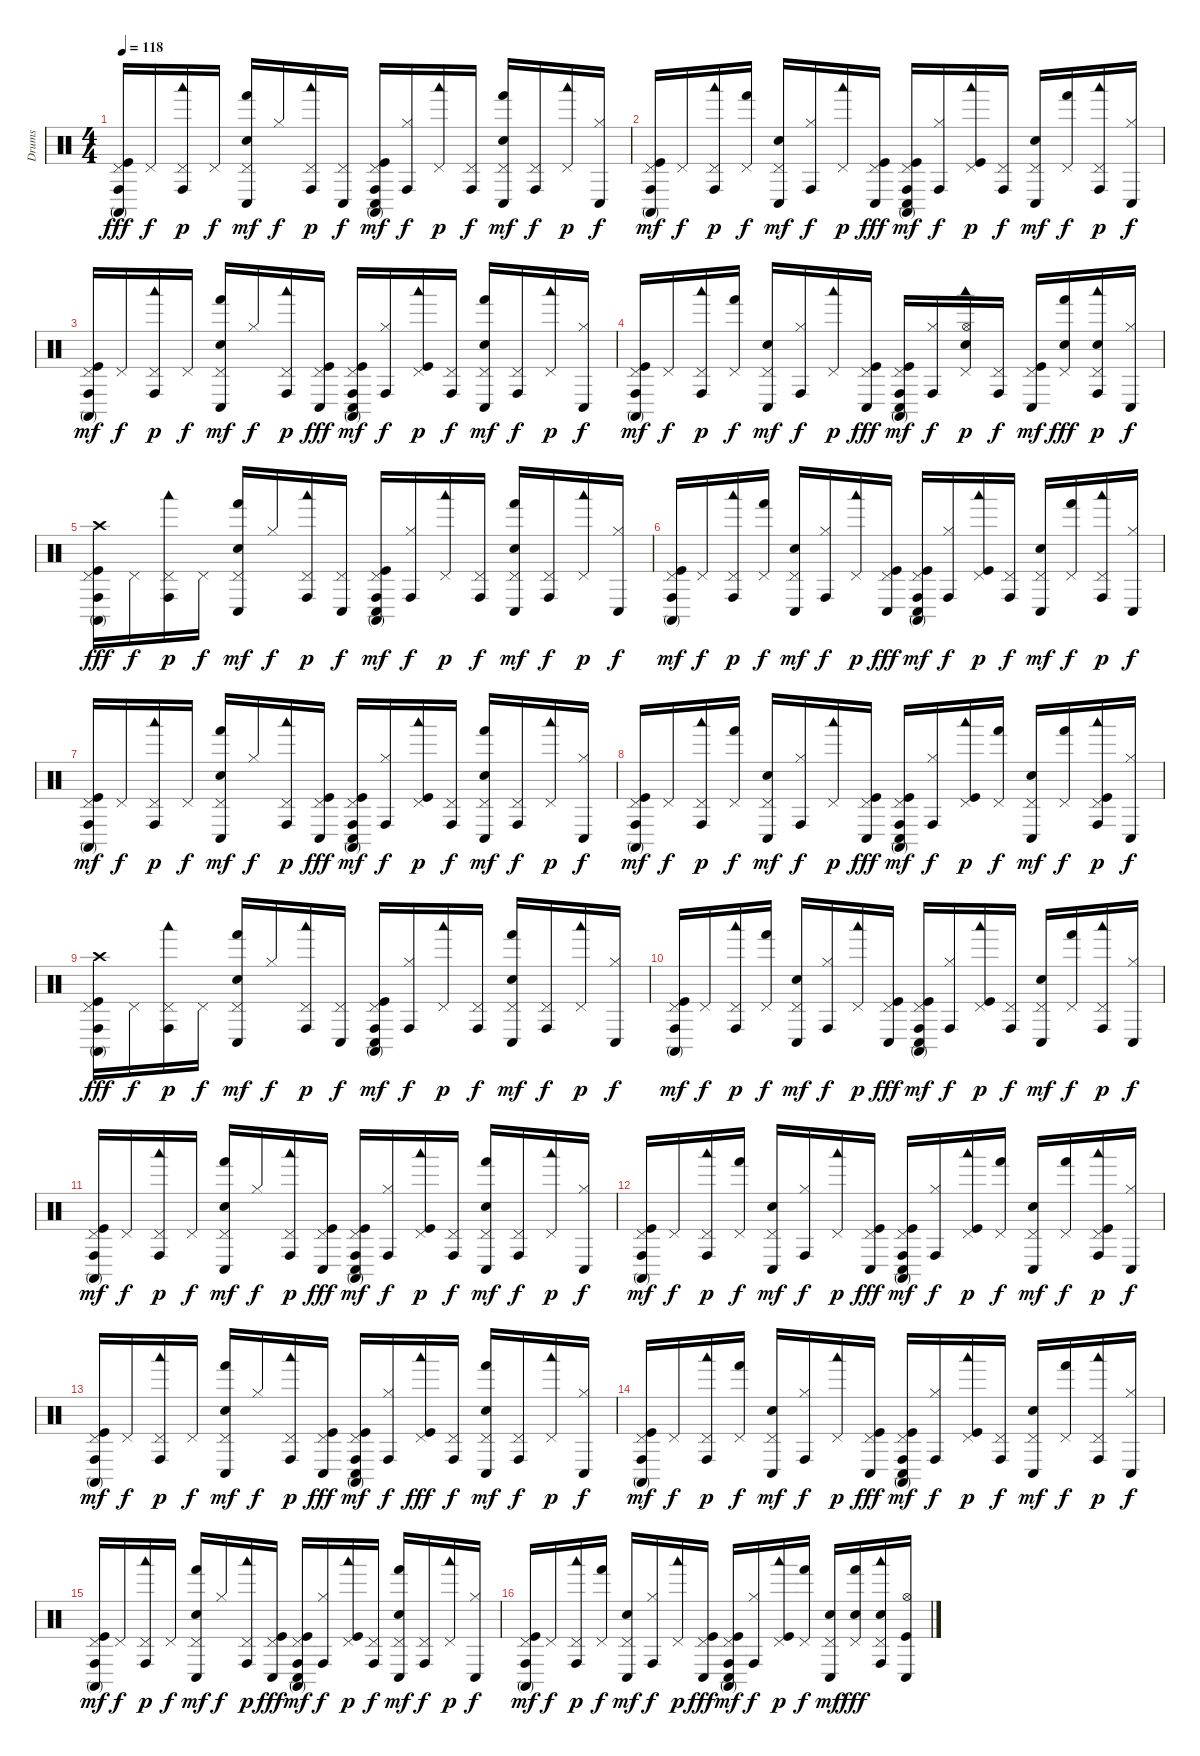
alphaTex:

\track ("Drums" "Drums") {instrument percussion}
\staff {score}
\articulation defaults
\ts (4 4)
\tempo 118
\clef neutral
\ks c
("Pedal Hi-Hat (hit)" "Kick (hit)" "Conga high (hit)" "Conga high (mute)").16{dy fff} "Pedal Hi-Hat (hit)".16{dy f} ("Pedal Hi-Hat (hit)" "Woodblock low (hit)" "Conga high (hit)").16{dy p} "Pedal Hi-Hat (hit)".16{dy f} ("Electric Snare (hit)" "Pedal Hi-Hat (hit)" "Hand (hit)" "Conga low (hit)").16{dy mf} "Hi-Hat (closed)".16{dy f} ("Pedal Hi-Hat (hit)" "Conga high (hit)" "Woodblock low (hit)").16{dy p} ("Pedal Hi-Hat (hit)" "Conga low (hit)").16{dy f} ("Kick (hit)" "Pedal Hi-Hat (hit)" "Conga high (hit)" "Conga high (mute)" "Conga low (hit)").16{dy mf} ("Hi-Hat (closed)" "Conga high (hit)").16{dy f} ("Pedal Hi-Hat (hit)" "Woodblock low (hit)").16{dy p} ("Pedal Hi-Hat (hit)" "Conga high (hit)").16{dy f} ("Electric Snare (hit)" "Pedal Hi-Hat (hit)" "Hand (hit)" "Conga low (hit)").16{dy mf} ("Pedal Hi-Hat (hit)" "Conga high (hit)").16{dy f} ("Pedal Hi-Hat (hit)" "Woodblock low (hit)").16{dy p} ("Hi-Hat (closed)" "Conga low (hit)").16{dy f} |
("Kick (hit)" "Pedal Hi-Hat (hit)" "Conga high (hit)" "Conga high (mute)").16{dy mf} "Pedal Hi-Hat (hit)".16{dy f} ("Pedal Hi-Hat (hit)" "Woodblock low (hit)" "Conga high (hit)").16{dy p} ("Pedal Hi-Hat (hit)" "Hand (hit)").16{dy f} ("Electric Snare (hit)" "Pedal Hi-Hat (hit)" "Conga low (hit)").16{dy mf} ("Hi-Hat (closed)" "Conga high (hit)").16{dy f} ("Pedal Hi-Hat (hit)" "Woodblock low (hit)").16{dy p} ("Kick (hit)" "Pedal Hi-Hat (hit)" "Conga low (hit)").16{dy fff} ("Kick (hit)" "Pedal Hi-Hat (hit)" "Conga high (hit)" "Conga high (mute)" "Conga low (hit)").16{dy mf} ("Hi-Hat (closed)" "Conga high (hit)").16{dy f} ("Kick (hit)" "Pedal Hi-Hat (hit)" "Woodblock low (hit)").16{dy p} ("Pedal Hi-Hat (hit)" "Conga high (hit)").16{dy f} ("Electric Snare (hit)" "Pedal Hi-Hat (hit)" "Conga low (hit)").16{dy mf} ("Pedal Hi-Hat (hit)" "Hand (hit)").16{dy f} ("Pedal Hi-Hat (hit)" "Conga high (hit)" "Woodblock low (hit)").16{dy p} ("Hi-Hat (closed)" "Conga low (hit)").16{dy f} |
("Kick (hit)" "Pedal Hi-Hat (hit)" "Conga high (hit)" "Conga high (mute)").16{dy mf} "Pedal Hi-Hat (hit)".16{dy f} ("Pedal Hi-Hat (hit)" "Woodblock low (hit)" "Conga high (hit)").16{dy p} "Pedal Hi-Hat (hit)".16{dy f} ("Electric Snare (hit)" "Pedal Hi-Hat (hit)" "Hand (hit)" "Conga low (hit)").16{dy mf} "Hi-Hat (closed)".16{dy f} ("Pedal Hi-Hat (hit)" "Conga high (hit)" "Woodblock low (hit)").16{dy p} ("Kick (hit)" "Pedal Hi-Hat (hit)" "Conga low (hit)").16{dy fff} ("Kick (hit)" "Pedal Hi-Hat (hit)" "Conga high (hit)" "Conga high (mute)" "Conga low (hit)").16{dy mf} ("Hi-Hat (closed)" "Conga high (hit)").16{dy f} ("Kick (hit)" "Pedal Hi-Hat (hit)" "Woodblock low (hit)").16{dy p} ("Pedal Hi-Hat (hit)" "Conga high (hit)").16{dy f} ("Electric Snare (hit)" "Pedal Hi-Hat (hit)" "Hand (hit)" "Conga low (hit)").16{dy mf} ("Pedal Hi-Hat (hit)" "Conga high (hit)").16{dy f} ("Pedal Hi-Hat (hit)" "Woodblock low (hit)").16{dy p} ("Hi-Hat (closed)" "Conga low (hit)").16{dy f} |
("Kick (hit)" "Pedal Hi-Hat (hit)" "Conga high (hit)" "Conga high (mute)").16{dy mf} "Pedal Hi-Hat (hit)".16{dy f} ("Pedal Hi-Hat (hit)" "Woodblock low (hit)" "Conga high (hit)").16{dy p} ("Pedal Hi-Hat (hit)" "Hand (hit)").16{dy f} ("Electric Snare (hit)" "Pedal Hi-Hat (hit)" "Conga low (hit)").16{dy mf} ("Hi-Hat (closed)" "Conga high (hit)").16{dy f} ("Pedal Hi-Hat (hit)" "Woodblock low (hit)").16{dy p} ("Kick (hit)" "Pedal Hi-Hat (hit)" "Conga low (hit)").16{dy fff} ("Kick (hit)" "Pedal Hi-Hat (hit)" "Conga high (hit)" "Conga high (mute)" "Conga low (hit)").16{dy mf} ("Hi-Hat (closed)" "Conga high (hit)").16{dy f} ("Electric Snare (hit)" "Pedal Hi-Hat (hit)" "Hi-Hat (open)" "Woodblock low (hit)").16{dy p} ("Pedal Hi-Hat (hit)" "Conga high (hit)").16{dy f} ("Kick (hit)" "Pedal Hi-Hat (hit)" "Conga low (hit)").16{dy mf} ("Electric Snare (hit)" "Pedal Hi-Hat (hit)" "Hand (hit)").16{dy fff} ("Electric Snare (hit)" "Pedal Hi-Hat (hit)" "Conga high (hit)" "Woodblock low (hit)").16{dy p} ("Hi-Hat (closed)" "Conga low (hit)").16{dy f} |
("Conga high (mute)" "Conga high (hit)" "Crash high (hit)" "Pedal Hi-Hat (hit)" "Kick (hit)").16{dy fff} "Pedal Hi-Hat (hit)".16{dy f} ("Pedal Hi-Hat (hit)" "Woodblock low (hit)" "Conga high (hit)").16{dy p} "Pedal Hi-Hat (hit)".16{dy f} ("Electric Snare (hit)" "Pedal Hi-Hat (hit)" "Hand (hit)" "Conga low (hit)").16{dy mf} "Hi-Hat (closed)".16{dy f} ("Pedal Hi-Hat (hit)" "Conga high (hit)" "Woodblock low (hit)").16{dy p} ("Pedal Hi-Hat (hit)" "Conga low (hit)").16{dy f} ("Kick (hit)" "Pedal Hi-Hat (hit)" "Conga high (hit)" "Conga high (mute)" "Conga low (hit)").16{dy mf} ("Hi-Hat (closed)" "Conga high (hit)").16{dy f} ("Pedal Hi-Hat (hit)" "Woodblock low (hit)").16{dy p} ("Pedal Hi-Hat (hit)" "Conga high (hit)").16{dy f} ("Electric Snare (hit)" "Pedal Hi-Hat (hit)" "Hand (hit)" "Conga low (hit)").16{dy mf} ("Pedal Hi-Hat (hit)" "Conga high (hit)").16{dy f} ("Pedal Hi-Hat (hit)" "Woodblock low (hit)").16{dy p} ("Hi-Hat (closed)" "Conga low (hit)").16{dy f} |
("Kick (hit)" "Pedal Hi-Hat (hit)" "Conga high (hit)" "Conga high (mute)").16{dy mf} "Pedal Hi-Hat (hit)".16{dy f} ("Pedal Hi-Hat (hit)" "Woodblock low (hit)" "Conga high (hit)").16{dy p} ("Pedal Hi-Hat (hit)" "Hand (hit)").16{dy f} ("Electric Snare (hit)" "Pedal Hi-Hat (hit)" "Conga low (hit)").16{dy mf} ("Hi-Hat (closed)" "Conga high (hit)").16{dy f} ("Pedal Hi-Hat (hit)" "Woodblock low (hit)").16{dy p} ("Kick (hit)" "Pedal Hi-Hat (hit)" "Conga low (hit)").16{dy fff} ("Kick (hit)" "Pedal Hi-Hat (hit)" "Conga high (hit)" "Conga high (mute)" "Conga low (hit)").16{dy mf} ("Hi-Hat (closed)" "Conga high (hit)").16{dy f} ("Kick (hit)" "Pedal Hi-Hat (hit)" "Woodblock low (hit)").16{dy p} ("Pedal Hi-Hat (hit)" "Conga high (hit)").16{dy f} ("Electric Snare (hit)" "Pedal Hi-Hat (hit)" "Conga low (hit)").16{dy mf} ("Pedal Hi-Hat (hit)" "Hand (hit)").16{dy f} ("Pedal Hi-Hat (hit)" "Conga high (hit)" "Woodblock low (hit)").16{dy p} ("Hi-Hat (closed)" "Conga low (hit)").16{dy f} |
("Kick (hit)" "Pedal Hi-Hat (hit)" "Conga high (hit)" "Conga high (mute)").16{dy mf} "Pedal Hi-Hat (hit)".16{dy f} ("Pedal Hi-Hat (hit)" "Woodblock low (hit)" "Conga high (hit)").16{dy p} "Pedal Hi-Hat (hit)".16{dy f} ("Electric Snare (hit)" "Pedal Hi-Hat (hit)" "Hand (hit)" "Conga low (hit)").16{dy mf} "Hi-Hat (closed)".16{dy f} ("Pedal Hi-Hat (hit)" "Conga high (hit)" "Woodblock low (hit)").16{dy p} ("Kick (hit)" "Pedal Hi-Hat (hit)" "Conga low (hit)").16{dy fff} ("Kick (hit)" "Pedal Hi-Hat (hit)" "Conga high (hit)" "Conga high (mute)" "Conga low (hit)").16{dy mf} ("Hi-Hat (closed)" "Conga high (hit)").16{dy f} ("Kick (hit)" "Pedal Hi-Hat (hit)" "Woodblock low (hit)").16{dy p} ("Pedal Hi-Hat (hit)" "Conga high (hit)").16{dy f} ("Electric Snare (hit)" "Pedal Hi-Hat (hit)" "Hand (hit)" "Conga low (hit)").16{dy mf} ("Pedal Hi-Hat (hit)" "Conga high (hit)").16{dy f} ("Pedal Hi-Hat (hit)" "Woodblock low (hit)").16{dy p} ("Hi-Hat (closed)" "Conga low (hit)").16{dy f} |
("Kick (hit)" "Pedal Hi-Hat (hit)" "Conga high (hit)" "Conga high (mute)").16{dy mf} "Pedal Hi-Hat (hit)".16{dy f} ("Pedal Hi-Hat (hit)" "Woodblock low (hit)" "Conga high (hit)").16{dy p} ("Pedal Hi-Hat (hit)" "Hand (hit)").16{dy f} ("Electric Snare (hit)" "Pedal Hi-Hat (hit)" "Conga low (hit)").16{dy mf} ("Hi-Hat (closed)" "Conga high (hit)").16{dy f} ("Pedal Hi-Hat (hit)" "Woodblock low (hit)").16{dy p} ("Kick (hit)" "Pedal Hi-Hat (hit)" "Conga low (hit)").16{dy fff} ("Kick (hit)" "Pedal Hi-Hat (hit)" "Conga high (hit)" "Conga high (mute)" "Conga low (hit)").16{dy mf} ("Hi-Hat (closed)" "Conga high (hit)").16{dy f} ("Kick (hit)" "Pedal Hi-Hat (hit)" "Woodblock low (hit)").16{dy p} ("Pedal Hi-Hat (hit)" "Hand (hit)").16{dy f} ("Electric Snare (hit)" "Pedal Hi-Hat (hit)" "Conga low (hit)").16{dy mf} ("Pedal Hi-Hat (hit)" "Hand (hit)").16{dy f} ("Kick (hit)" "Pedal Hi-Hat (hit)" "Conga high (hit)" "Woodblock low (hit)").16{dy p} ("Hi-Hat (closed)" "Conga low (hit)").16{dy f} |
("Conga high (mute)" "Conga high (hit)" "Crash high (hit)" "Pedal Hi-Hat (hit)" "Kick (hit)").16{dy fff} "Pedal Hi-Hat (hit)".16{dy f} ("Pedal Hi-Hat (hit)" "Woodblock low (hit)" "Conga high (hit)").16{dy p} "Pedal Hi-Hat (hit)".16{dy f} ("Electric Snare (hit)" "Pedal Hi-Hat (hit)" "Hand (hit)" "Conga low (hit)").16{dy mf} "Hi-Hat (closed)".16{dy f} ("Pedal Hi-Hat (hit)" "Conga high (hit)" "Woodblock low (hit)").16{dy p} ("Pedal Hi-Hat (hit)" "Conga low (hit)").16{dy f} ("Kick (hit)" "Pedal Hi-Hat (hit)" "Conga high (hit)" "Conga high (mute)" "Conga low (hit)").16{dy mf} ("Hi-Hat (closed)" "Conga high (hit)").16{dy f} ("Pedal Hi-Hat (hit)" "Woodblock low (hit)").16{dy p} ("Pedal Hi-Hat (hit)" "Conga high (hit)").16{dy f} ("Electric Snare (hit)" "Pedal Hi-Hat (hit)" "Hand (hit)" "Conga low (hit)").16{dy mf} ("Pedal Hi-Hat (hit)" "Conga high (hit)").16{dy f} ("Pedal Hi-Hat (hit)" "Woodblock low (hit)").16{dy p} ("Hi-Hat (closed)" "Conga low (hit)").16{dy f} |
("Kick (hit)" "Pedal Hi-Hat (hit)" "Conga high (hit)" "Conga high (mute)").16{dy mf} "Pedal Hi-Hat (hit)".16{dy f} ("Pedal Hi-Hat (hit)" "Woodblock low (hit)" "Conga high (hit)").16{dy p} ("Pedal Hi-Hat (hit)" "Hand (hit)").16{dy f} ("Electric Snare (hit)" "Pedal Hi-Hat (hit)" "Conga low (hit)").16{dy mf} ("Hi-Hat (closed)" "Conga high (hit)").16{dy f} ("Pedal Hi-Hat (hit)" "Woodblock low (hit)").16{dy p} ("Kick (hit)" "Pedal Hi-Hat (hit)" "Conga low (hit)").16{dy fff} ("Kick (hit)" "Pedal Hi-Hat (hit)" "Conga high (hit)" "Conga high (mute)" "Conga low (hit)").16{dy mf} ("Hi-Hat (closed)" "Conga high (hit)").16{dy f} ("Kick (hit)" "Pedal Hi-Hat (hit)" "Woodblock low (hit)").16{dy p} ("Pedal Hi-Hat (hit)" "Conga high (hit)").16{dy f} ("Electric Snare (hit)" "Pedal Hi-Hat (hit)" "Conga low (hit)").16{dy mf} ("Pedal Hi-Hat (hit)" "Hand (hit)").16{dy f} ("Pedal Hi-Hat (hit)" "Conga high (hit)" "Woodblock low (hit)").16{dy p} ("Hi-Hat (closed)" "Conga low (hit)").16{dy f} |
("Kick (hit)" "Pedal Hi-Hat (hit)" "Conga high (hit)" "Conga high (mute)").16{dy mf} "Pedal Hi-Hat (hit)".16{dy f} ("Pedal Hi-Hat (hit)" "Woodblock low (hit)" "Conga high (hit)").16{dy p} "Pedal Hi-Hat (hit)".16{dy f} ("Electric Snare (hit)" "Pedal Hi-Hat (hit)" "Hand (hit)" "Conga low (hit)").16{dy mf} "Hi-Hat (closed)".16{dy f} ("Pedal Hi-Hat (hit)" "Conga high (hit)" "Woodblock low (hit)").16{dy p} ("Kick (hit)" "Pedal Hi-Hat (hit)" "Conga low (hit)").16{dy fff} ("Kick (hit)" "Pedal Hi-Hat (hit)" "Conga high (hit)" "Conga high (mute)" "Conga low (hit)").16{dy mf} ("Hi-Hat (closed)" "Conga high (hit)").16{dy f} ("Kick (hit)" "Pedal Hi-Hat (hit)" "Woodblock low (hit)").16{dy p} ("Pedal Hi-Hat (hit)" "Conga high (hit)").16{dy f} ("Electric Snare (hit)" "Pedal Hi-Hat (hit)" "Hand (hit)" "Conga low (hit)").16{dy mf} ("Pedal Hi-Hat (hit)" "Conga high (hit)").16{dy f} ("Pedal Hi-Hat (hit)" "Woodblock low (hit)").16{dy p} ("Hi-Hat (closed)" "Conga low (hit)").16{dy f} |
("Kick (hit)" "Pedal Hi-Hat (hit)" "Conga high (hit)" "Conga high (mute)").16{dy mf} "Pedal Hi-Hat (hit)".16{dy f} ("Pedal Hi-Hat (hit)" "Woodblock low (hit)" "Conga high (hit)").16{dy p} ("Pedal Hi-Hat (hit)" "Hand (hit)").16{dy f} ("Electric Snare (hit)" "Pedal Hi-Hat (hit)" "Conga low (hit)").16{dy mf} ("Hi-Hat (closed)" "Conga high (hit)").16{dy f} ("Pedal Hi-Hat (hit)" "Woodblock low (hit)").16{dy p} ("Kick (hit)" "Pedal Hi-Hat (hit)" "Conga low (hit)").16{dy fff} ("Kick (hit)" "Pedal Hi-Hat (hit)" "Conga high (hit)" "Conga high (mute)" "Conga low (hit)").16{dy mf} ("Hi-Hat (closed)" "Conga high (hit)").16{dy f} ("Kick (hit)" "Pedal Hi-Hat (hit)" "Woodblock low (hit)").16{dy p} ("Pedal Hi-Hat (hit)" "Hand (hit)").16{dy f} ("Electric Snare (hit)" "Pedal Hi-Hat (hit)" "Conga low (hit)").16{dy mf} ("Pedal Hi-Hat (hit)" "Hand (hit)").16{dy f} ("Kick (hit)" "Pedal Hi-Hat (hit)" "Conga high (hit)" "Woodblock low (hit)").16{dy p} ("Hi-Hat (closed)" "Conga low (hit)").16{dy f} |
("Kick (hit)" "Pedal Hi-Hat (hit)" "Conga high (hit)" "Conga high (mute)").16{dy mf} "Pedal Hi-Hat (hit)".16{dy f} ("Pedal Hi-Hat (hit)" "Woodblock low (hit)" "Conga high (hit)").16{dy p} "Pedal Hi-Hat (hit)".16{dy f} ("Electric Snare (hit)" "Pedal Hi-Hat (hit)" "Hand (hit)" "Conga low (hit)").16{dy mf} "Hi-Hat (closed)".16{dy f} ("Pedal Hi-Hat (hit)" "Conga high (hit)" "Woodblock low (hit)").16{dy p} ("Pedal Hi-Hat (hit)" "Conga low (hit)" "Kick (hit)").16{dy fff} ("Kick (hit)" "Pedal Hi-Hat (hit)" "Conga high (hit)" "Conga high (mute)" "Conga low (hit)").16{dy mf} ("Hi-Hat (closed)" "Conga high (hit)").16{dy f} ("Pedal Hi-Hat (hit)" "Woodblock low (hit)" "Kick (hit)").16{dy fff} ("Pedal Hi-Hat (hit)" "Conga high (hit)").16{dy f} ("Electric Snare (hit)" "Pedal Hi-Hat (hit)" "Hand (hit)" "Conga low (hit)").16{dy mf} ("Pedal Hi-Hat (hit)" "Conga high (hit)").16{dy f} ("Pedal Hi-Hat (hit)" "Woodblock low (hit)").16{dy p} ("Hi-Hat (closed)" "Conga low (hit)").16{dy f} |
("Kick (hit)" "Pedal Hi-Hat (hit)" "Conga high (hit)" "Conga high (mute)").16{dy mf} "Pedal Hi-Hat (hit)".16{dy f} ("Pedal Hi-Hat (hit)" "Woodblock low (hit)" "Conga high (hit)").16{dy p} ("Pedal Hi-Hat (hit)" "Hand (hit)").16{dy f} ("Electric Snare (hit)" "Pedal Hi-Hat (hit)" "Conga low (hit)").16{dy mf} ("Hi-Hat (closed)" "Conga high (hit)").16{dy f} ("Pedal Hi-Hat (hit)" "Woodblock low (hit)").16{dy p} ("Kick (hit)" "Pedal Hi-Hat (hit)" "Conga low (hit)").16{dy fff} ("Kick (hit)" "Pedal Hi-Hat (hit)" "Conga high (hit)" "Conga high (mute)" "Conga low (hit)").16{dy mf} ("Hi-Hat (closed)" "Conga high (hit)").16{dy f} ("Kick (hit)" "Pedal Hi-Hat (hit)" "Woodblock low (hit)").16{dy p} ("Pedal Hi-Hat (hit)" "Conga high (hit)").16{dy f} ("Electric Snare (hit)" "Pedal Hi-Hat (hit)" "Conga low (hit)").16{dy mf} ("Pedal Hi-Hat (hit)" "Hand (hit)").16{dy f} ("Pedal Hi-Hat (hit)" "Conga high (hit)" "Woodblock low (hit)").16{dy p} ("Hi-Hat (closed)" "Conga low (hit)").16{dy f} |
("Kick (hit)" "Pedal Hi-Hat (hit)" "Conga high (hit)" "Conga high (mute)").16{dy mf} "Pedal Hi-Hat (hit)".16{dy f} ("Pedal Hi-Hat (hit)" "Woodblock low (hit)" "Conga high (hit)").16{dy p} "Pedal Hi-Hat (hit)".16{dy f} ("Electric Snare (hit)" "Pedal Hi-Hat (hit)" "Hand (hit)" "Conga low (hit)").16{dy mf} "Hi-Hat (closed)".16{dy f} ("Pedal Hi-Hat (hit)" "Conga high (hit)" "Woodblock low (hit)").16{dy p} ("Kick (hit)" "Pedal Hi-Hat (hit)" "Conga low (hit)").16{dy fff} ("Kick (hit)" "Pedal Hi-Hat (hit)" "Conga high (hit)" "Conga high (mute)" "Conga low (hit)").16{dy mf} ("Hi-Hat (closed)" "Conga high (hit)").16{dy f} ("Kick (hit)" "Pedal Hi-Hat (hit)" "Woodblock low (hit)").16{dy p} ("Pedal Hi-Hat (hit)" "Conga high (hit)").16{dy f} ("Electric Snare (hit)" "Pedal Hi-Hat (hit)" "Hand (hit)" "Conga low (hit)").16{dy mf} ("Pedal Hi-Hat (hit)" "Conga high (hit)").16{dy f} ("Pedal Hi-Hat (hit)" "Woodblock low (hit)").16{dy p} ("Hi-Hat (closed)" "Conga low (hit)").16{dy f} |
("Kick (hit)" "Pedal Hi-Hat (hit)" "Conga high (hit)" "Conga high (mute)").16{dy mf} "Pedal Hi-Hat (hit)".16{dy f} ("Pedal Hi-Hat (hit)" "Woodblock low (hit)" "Conga high (hit)").16{dy p} ("Pedal Hi-Hat (hit)" "Hand (hit)").16{dy f} ("Electric Snare (hit)" "Pedal Hi-Hat (hit)" "Conga low (hit)").16{dy mf} ("Hi-Hat (closed)" "Conga high (hit)").16{dy f} ("Pedal Hi-Hat (hit)" "Woodblock low (hit)").16{dy p} ("Kick (hit)" "Pedal Hi-Hat (hit)" "Conga low (hit)").16{dy fff} ("Kick (hit)" "Pedal Hi-Hat (hit)" "Conga high (hit)" "Conga high (mute)" "Conga low (hit)").16{dy mf} ("Hi-Hat (closed)" "Conga high (hit)").16{dy f} ("Kick (hit)" "Pedal Hi-Hat (hit)" "Woodblock low (hit)").16{dy p} ("Pedal Hi-Hat (hit)" "Hand (hit)").16{dy f} ("Electric Snare (hit)" "Pedal Hi-Hat (hit)" "Conga low (hit)").16{dy mf} ("Pedal Hi-Hat (hit)" "Hand (hit)" "Electric Snare (hit)").16{dy fff} ("Pedal Hi-Hat (hit)" "Conga high (hit)" "Woodblock low (hit)" "Electric Snare (hit)").16 ("Conga low (hit)" "Kick (hit)" "Hi-Hat (open)").16
